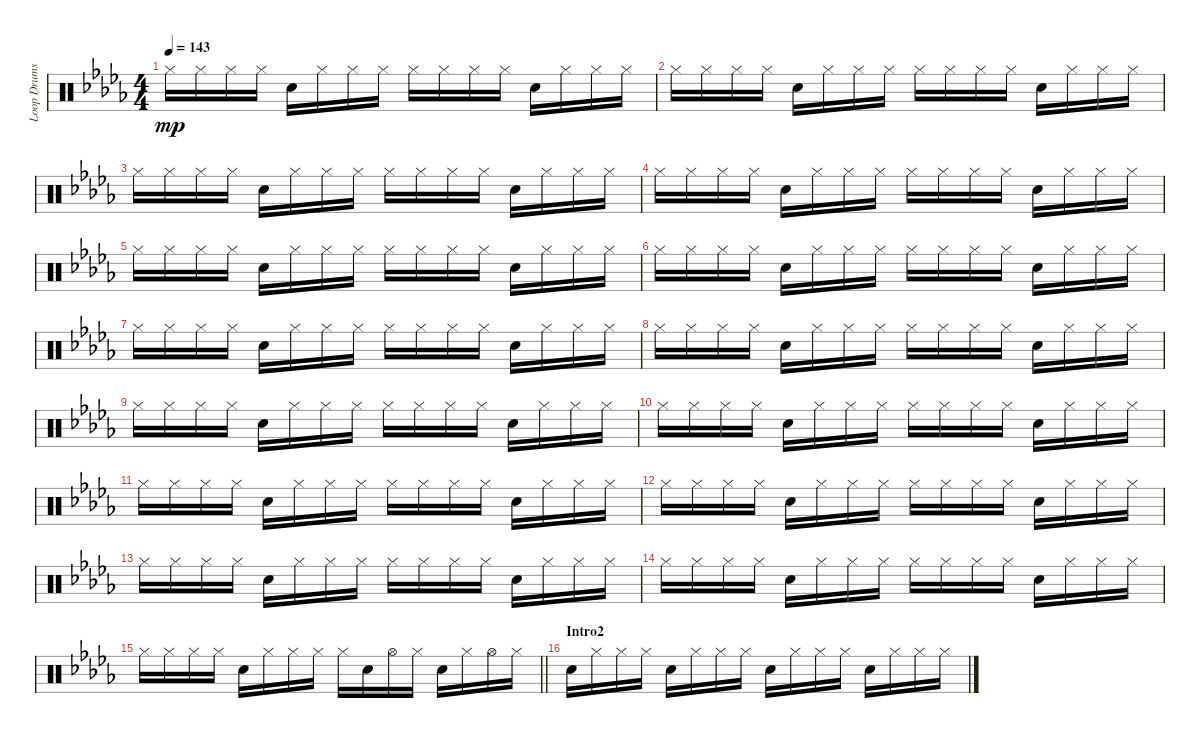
\track ("Loop Drums" "Loop Drums") {instrument percussion}
\staff {score}
\articulation defaults
\ts (4 4)
\tempo 143
\clef neutral
\ks db "Hi-Hat (closed)".16{dy mp} "Hi-Hat (closed)".16 "Hi-Hat (closed)".16 "Hi-Hat (closed)".16 "Electric Snare (hit)".16 "Hi-Hat (closed)".16 "Hi-Hat (closed)".16 "Hi-Hat (closed)".16 "Hi-Hat (closed)".16 "Hi-Hat (closed)".16 "Hi-Hat (closed)".16 "Hi-Hat (closed)".16 "Electric Snare (hit)".16 "Hi-Hat (closed)".16 "Hi-Hat (closed)".16 "Hi-Hat (closed)".16
|
"Hi-Hat (closed)".16 "Hi-Hat (closed)".16 "Hi-Hat (closed)".16 "Hi-Hat (closed)".16 "Electric Snare (hit)".16 "Hi-Hat (closed)".16 "Hi-Hat (closed)".16 "Hi-Hat (closed)".16 "Hi-Hat (closed)".16 "Hi-Hat (closed)".16 "Hi-Hat (closed)".16 "Hi-Hat (closed)".16 "Electric Snare (hit)".16 "Hi-Hat (closed)".16 "Hi-Hat (closed)".16 "Hi-Hat (closed)".16 |
"Hi-Hat (closed)".16 "Hi-Hat (closed)".16 "Hi-Hat (closed)".16 "Hi-Hat (closed)".16 "Electric Snare (hit)".16 "Hi-Hat (closed)".16 "Hi-Hat (closed)".16 "Hi-Hat (closed)".16 "Hi-Hat (closed)".16 "Hi-Hat (closed)".16 "Hi-Hat (closed)".16 "Hi-Hat (closed)".16 "Electric Snare (hit)".16 "Hi-Hat (closed)".16 "Hi-Hat (closed)".16 "Hi-Hat (closed)".16 |
"Hi-Hat (closed)".16 "Hi-Hat (closed)".16 "Hi-Hat (closed)".16 "Hi-Hat (closed)".16 "Electric Snare (hit)".16 "Hi-Hat (closed)".16 "Hi-Hat (closed)".16 "Hi-Hat (closed)".16 "Hi-Hat (closed)".16 "Hi-Hat (closed)".16 "Hi-Hat (closed)".16 "Hi-Hat (closed)".16 "Electric Snare (hit)".16 "Hi-Hat (closed)".16 "Hi-Hat (closed)".16 "Hi-Hat (closed)".16 |
"Hi-Hat (closed)".16 "Hi-Hat (closed)".16 "Hi-Hat (closed)".16 "Hi-Hat (closed)".16 "Electric Snare (hit)".16 "Hi-Hat (closed)".16 "Hi-Hat (closed)".16 "Hi-Hat (closed)".16 "Hi-Hat (closed)".16 "Hi-Hat (closed)".16 "Hi-Hat (closed)".16 "Hi-Hat (closed)".16 "Electric Snare (hit)".16 "Hi-Hat (closed)".16 "Hi-Hat (closed)".16 "Hi-Hat (closed)".16 |
"Hi-Hat (closed)".16 "Hi-Hat (closed)".16 "Hi-Hat (closed)".16 "Hi-Hat (closed)".16 "Electric Snare (hit)".16 "Hi-Hat (closed)".16 "Hi-Hat (closed)".16 "Hi-Hat (closed)".16 "Hi-Hat (closed)".16 "Hi-Hat (closed)".16 "Hi-Hat (closed)".16 "Hi-Hat (closed)".16 "Electric Snare (hit)".16 "Hi-Hat (closed)".16 "Hi-Hat (closed)".16 "Hi-Hat (closed)".16 |
"Hi-Hat (closed)".16 "Hi-Hat (closed)".16 "Hi-Hat (closed)".16 "Hi-Hat (closed)".16 "Electric Snare (hit)".16 "Hi-Hat (closed)".16 "Hi-Hat (closed)".16 "Hi-Hat (closed)".16 "Hi-Hat (closed)".16 "Hi-Hat (closed)".16 "Hi-Hat (closed)".16 "Hi-Hat (closed)".16 "Electric Snare (hit)".16 "Hi-Hat (closed)".16 "Hi-Hat (closed)".16 "Hi-Hat (closed)".16 |
"Hi-Hat (closed)".16 "Hi-Hat (closed)".16 "Hi-Hat (closed)".16 "Hi-Hat (closed)".16 "Electric Snare (hit)".16 "Hi-Hat (closed)".16 "Hi-Hat (closed)".16 "Hi-Hat (closed)".16 "Hi-Hat (closed)".16 "Hi-Hat (closed)".16 "Hi-Hat (closed)".16 "Hi-Hat (closed)".16 "Electric Snare (hit)".16 "Hi-Hat (closed)".16 "Hi-Hat (closed)".16 "Hi-Hat (closed)".16 |
"Hi-Hat (closed)".16 "Hi-Hat (closed)".16 "Hi-Hat (closed)".16 "Hi-Hat (closed)".16 "Electric Snare (hit)".16 "Hi-Hat (closed)".16 "Hi-Hat (closed)".16 "Hi-Hat (closed)".16 "Hi-Hat (closed)".16 "Hi-Hat (closed)".16 "Hi-Hat (closed)".16 "Hi-Hat (closed)".16 "Electric Snare (hit)".16 "Hi-Hat (closed)".16 "Hi-Hat (closed)".16 "Hi-Hat (closed)".16 |
"Hi-Hat (closed)".16 "Hi-Hat (closed)".16 "Hi-Hat (closed)".16 "Hi-Hat (closed)".16 "Electric Snare (hit)".16 "Hi-Hat (closed)".16 "Hi-Hat (closed)".16 "Hi-Hat (closed)".16 "Hi-Hat (closed)".16 "Hi-Hat (closed)".16 "Hi-Hat (closed)".16 "Hi-Hat (closed)".16 "Electric Snare (hit)".16 "Hi-Hat (closed)".16 "Hi-Hat (closed)".16 "Hi-Hat (closed)".16 |
"Hi-Hat (closed)".16 "Hi-Hat (closed)".16 "Hi-Hat (closed)".16 "Hi-Hat (closed)".16 "Electric Snare (hit)".16 "Hi-Hat (closed)".16 "Hi-Hat (closed)".16 "Hi-Hat (closed)".16 "Hi-Hat (closed)".16 "Hi-Hat (closed)".16 "Hi-Hat (closed)".16 "Hi-Hat (closed)".16 "Electric Snare (hit)".16 "Hi-Hat (closed)".16 "Hi-Hat (closed)".16 "Hi-Hat (closed)".16 |
"Hi-Hat (closed)".16 "Hi-Hat (closed)".16 "Hi-Hat (closed)".16 "Hi-Hat (closed)".16 "Electric Snare (hit)".16 "Hi-Hat (closed)".16 "Hi-Hat (closed)".16 "Hi-Hat (closed)".16 "Hi-Hat (closed)".16 "Hi-Hat (closed)".16 "Hi-Hat (closed)".16 "Hi-Hat (closed)".16 "Electric Snare (hit)".16 "Hi-Hat (closed)".16 "Hi-Hat (closed)".16 "Hi-Hat (closed)".16 |
"Hi-Hat (closed)".16 "Hi-Hat (closed)".16 "Hi-Hat (closed)".16 "Hi-Hat (closed)".16 "Electric Snare (hit)".16 "Hi-Hat (closed)".16 "Hi-Hat (closed)".16 "Hi-Hat (closed)".16 "Hi-Hat (closed)".16 "Hi-Hat (closed)".16 "Hi-Hat (closed)".16 "Hi-Hat (closed)".16 "Electric Snare (hit)".16 "Hi-Hat (closed)".16 "Hi-Hat (closed)".16 "Hi-Hat (closed)".16 |
"Hi-Hat (closed)".16 "Hi-Hat (closed)".16 "Hi-Hat (closed)".16 "Hi-Hat (closed)".16 "Electric Snare (hit)".16 "Hi-Hat (closed)".16 "Hi-Hat (closed)".16 "Hi-Hat (closed)".16 "Hi-Hat (closed)".16 "Hi-Hat (closed)".16 "Hi-Hat (closed)".16 "Hi-Hat (closed)".16 "Electric Snare (hit)".16 "Hi-Hat (closed)".16 "Hi-Hat (closed)".16 "Hi-Hat (closed)".16 |
\barLineRight lightlight "Hi-Hat (closed)".16 "Hi-Hat (closed)".16 "Hi-Hat (closed)".16 "Hi-Hat (closed)".16 "Electric Snare (hit)".16 "Hi-Hat (closed)".16 "Hi-Hat (closed)".16 "Hi-Hat (closed)".16 "Hi-Hat (closed)".16 "Electric Snare (hit)".16 "Hi-Hat (open)".16 "Hi-Hat (closed)".16 "Electric Snare (hit)".16 "Hi-Hat (closed)".16 "Hi-Hat (open)".16 "Hi-Hat (closed)".16
|
\section ("" "Intro2")
"Electric Snare (hit)".16 "Hi-Hat (closed)".16 "Hi-Hat (closed)".16 "Hi-Hat (closed)".16 "Electric Snare (hit)".16 "Hi-Hat (closed)".16 "Hi-Hat (closed)".16 "Hi-Hat (closed)".16 "Electric Snare (hit)".16 "Hi-Hat (closed)".16 "Hi-Hat (closed)".16 "Hi-Hat (closed)".16 "Electric Snare (hit)".16 "Hi-Hat (closed)".16 "Hi-Hat (closed)".16 "Hi-Hat (closed)".16
